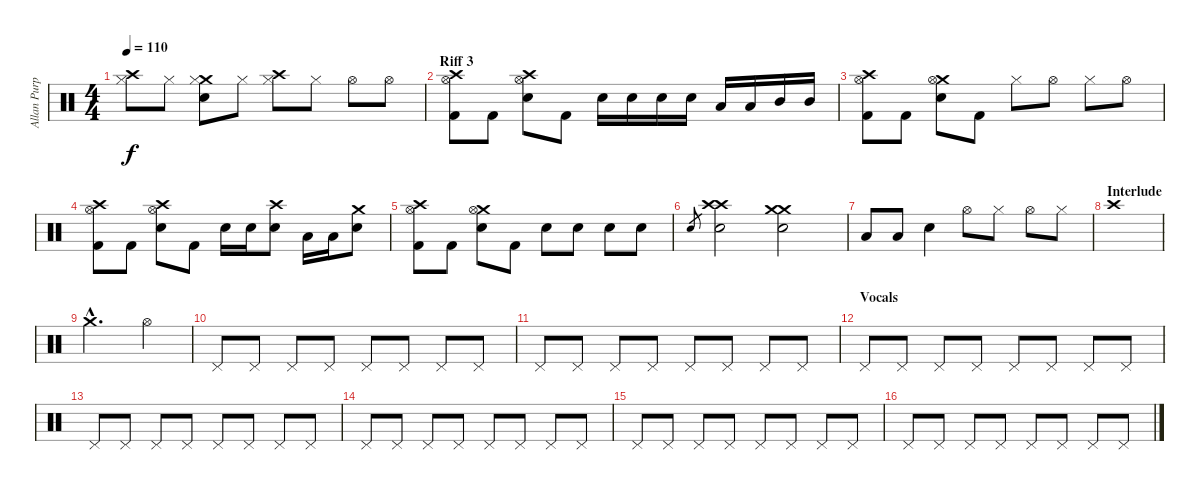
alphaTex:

\track ("Allan Purple" "Allan Purp") {instrument percussion}
\staff {score}
\articulation defaults
\ts (4 4)
\tempo 110
\clef neutral
\ks c
("Crash high (hit)" "Hi-Hat (closed)").8{dy f} "Hi-Hat (closed)".8 ("Crash medium (hit)" "Hi-Hat (closed)" "Electric Snare (hit)").8 "Hi-Hat (closed)".8 ("Crash high (hit)" "Hi-Hat (closed)").8 "Hi-Hat (closed)".8 "Hi-Hat (open)".8 "Hi-Hat (open)".8 |
\section ("" "Riff 3")
("Crash high (hit)" "Hi-Hat (open)" "Kick (hit) 2").8 "Kick (hit) 2".8 ("Crash high (hit)" "Hi-Hat (open)" "Electric Snare (hit)").8 "Kick (hit) 2".8 "Electric Snare (hit)".16 "Electric Snare (hit)".16 "Snare (hit) 2".16 "Snare (hit) 2".16 "Low Tom (hit)".16 "Low Tom (hit)".16 "Mid Tom (hit)".16 "Mid Tom (hit)".16 |
("Crash high (hit)" "Hi-Hat (open)" "Kick (hit) 2").8 "Kick (hit) 2".8 ("Crash medium (hit)" "Hi-Hat (open)" "Electric Snare (hit)").8 "Kick (hit) 2".8 "Hi-Hat (closed)".8 "Hi-Hat (open)".8 "Hi-Hat (closed)".8 "Hi-Hat (open)".8 |
("Crash high (hit)" "Hi-Hat (open)" "Kick (hit) 2").8 "Kick (hit) 2".8 ("Crash high (hit)" "Hi-Hat (open)" "Electric Snare (hit)").8 "Kick (hit) 2".8 "Electric Snare (hit)".16 "Electric Snare (hit)".16 ("Crash high (hit)" "Snare (hit) 2").8 "Low Tom (hit)".16 "Low Tom (hit)".16 ("Crash medium (hit)" "Electric Snare (hit)").8 |
("Crash high (hit)" "Hi-Hat (open)" "Kick (hit) 2").8 "Kick (hit) 2".8 ("Crash medium (hit)" "Hi-Hat (open)" "Electric Snare (hit)").8 "Kick (hit) 2".8 "Electric Snare (hit)".8 "Electric Snare (hit)".8 "Snare (hit) 2".8 "Snare (hit) 2".8 |
"Electric Snare (hit)".8{gr} ("Crash high (hit)" "Crash high (hit)" "Electric Snare (hit)").2 ("Crash medium (hit)" "Crash medium (hit)" "Snare (hit) 2").2 |
"Low Tom (hit)".8 "Low Tom (hit)".8 "Electric Snare (hit)".4 "Hi-Hat (open)".8 "Hi-Hat (closed)".8 "Hi-Hat (open)".8 "Hi-Hat (closed)".8 |
\section ("" "Interlude")
"Crash high (hit)".1 |
"Crash medium (hit)"{hac}.2{d} "Hi-Hat (open)".4 |
"Pedal Hi-Hat (hit)".8 "Pedal Hi-Hat (hit)".8 "Pedal Hi-Hat (hit)".8 "Pedal Hi-Hat (hit)".8 "Pedal Hi-Hat (hit)".8 "Pedal Hi-Hat (hit)".8 "Pedal Hi-Hat (hit)".8 "Pedal Hi-Hat (hit)".8 |
"Pedal Hi-Hat (hit)".8 "Pedal Hi-Hat (hit)".8 "Pedal Hi-Hat (hit)".8 "Pedal Hi-Hat (hit)".8 "Pedal Hi-Hat (hit)".8 "Pedal Hi-Hat (hit)".8 "Pedal Hi-Hat (hit)".8 "Pedal Hi-Hat (hit)".8 |
\section ("" "Vocals")
"Pedal Hi-Hat (hit)".8 "Pedal Hi-Hat (hit)".8 "Pedal Hi-Hat (hit)".8 "Pedal Hi-Hat (hit)".8 "Pedal Hi-Hat (hit)".8 "Pedal Hi-Hat (hit)".8 "Pedal Hi-Hat (hit)".8 "Pedal Hi-Hat (hit)".8 |
"Pedal Hi-Hat (hit)".8 "Pedal Hi-Hat (hit)".8 "Pedal Hi-Hat (hit)".8 "Pedal Hi-Hat (hit)".8 "Pedal Hi-Hat (hit)".8 "Pedal Hi-Hat (hit)".8 "Pedal Hi-Hat (hit)".8 "Pedal Hi-Hat (hit)".8 |
"Pedal Hi-Hat (hit)".8 "Pedal Hi-Hat (hit)".8 "Pedal Hi-Hat (hit)".8 "Pedal Hi-Hat (hit)".8 "Pedal Hi-Hat (hit)".8 "Pedal Hi-Hat (hit)".8 "Pedal Hi-Hat (hit)".8 "Pedal Hi-Hat (hit)".8 |
"Pedal Hi-Hat (hit)".8 "Pedal Hi-Hat (hit)".8 "Pedal Hi-Hat (hit)".8 "Pedal Hi-Hat (hit)".8 "Pedal Hi-Hat (hit)".8 "Pedal Hi-Hat (hit)".8 "Pedal Hi-Hat (hit)".8 "Pedal Hi-Hat (hit)".8 |
"Pedal Hi-Hat (hit)".8 "Pedal Hi-Hat (hit)".8 "Pedal Hi-Hat (hit)".8 "Pedal Hi-Hat (hit)".8 "Pedal Hi-Hat (hit)".8 "Pedal Hi-Hat (hit)".8 "Pedal Hi-Hat (hit)".8 "Pedal Hi-Hat (hit)".8
